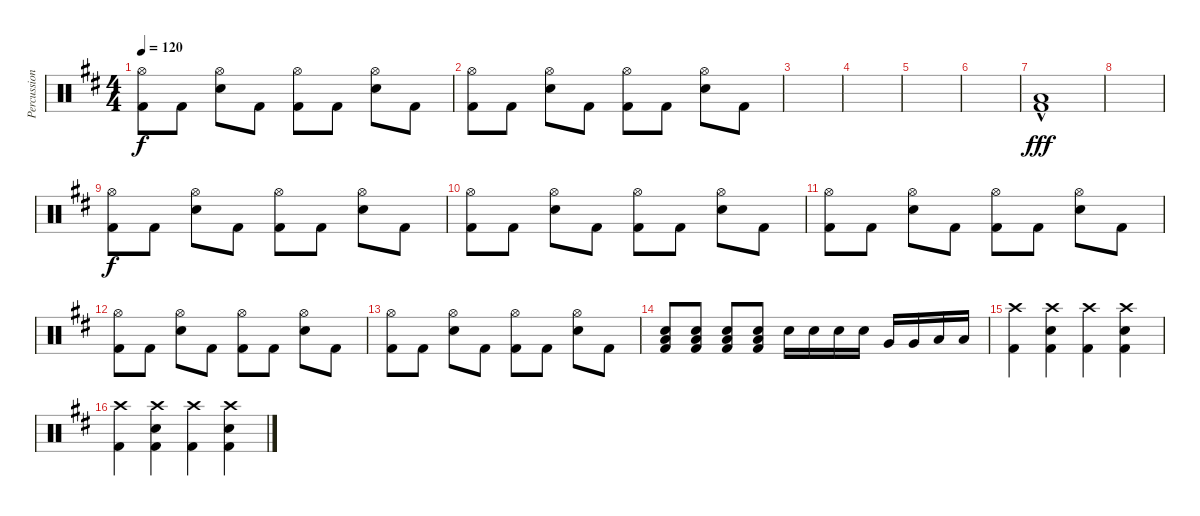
\track ("Percussion" "Percussion") {instrument percussion}
\staff {score}
\articulation defaults
\ts (4 4)
\tempo 120
\clef neutral
\ks d
("Hi-Hat (open)" "Kick (hit) 2").8{dy f} "Kick (hit) 2".8 ("Hi-Hat (open)" "Snare (hit) 2").8 "Kick (hit) 2".8 ("Hi-Hat (open)" "Kick (hit) 2").8 "Kick (hit) 2".8 ("Hi-Hat (open)" "Snare (hit) 2").8 "Kick (hit) 2".8 |
("Hi-Hat (open)" "Kick (hit) 2").8 "Kick (hit) 2".8 ("Hi-Hat (open)" "Snare (hit) 2").8 "Kick (hit) 2".8 ("Hi-Hat (open)" "Kick (hit) 2").8 "Kick (hit) 2".8 ("Hi-Hat (open)" "Snare (hit) 2").8 "Kick (hit) 2".8 |
|
|
|
|
("Low Floor Tom (hit)"{hac} "Kick (hit) 2"{hac}).1{dy fff} |
|
("Hi-Hat (open)" "Kick (hit) 2").8{dy f} "Kick (hit) 2".8 ("Hi-Hat (open)" "Snare (hit) 2").8 "Kick (hit) 2".8 ("Hi-Hat (open)" "Kick (hit) 2").8 "Kick (hit) 2".8 ("Hi-Hat (open)" "Snare (hit) 2").8 "Kick (hit) 2".8 |
("Hi-Hat (open)" "Kick (hit) 2").8 "Kick (hit) 2".8 ("Hi-Hat (open)" "Snare (hit) 2").8 "Kick (hit) 2".8 ("Hi-Hat (open)" "Kick (hit) 2").8 "Kick (hit) 2".8 ("Hi-Hat (open)" "Snare (hit) 2").8 "Kick (hit) 2".8 |
("Hi-Hat (open)" "Kick (hit) 2").8 "Kick (hit) 2".8 ("Hi-Hat (open)" "Snare (hit) 2").8 "Kick (hit) 2".8 ("Hi-Hat (open)" "Kick (hit) 2").8 "Kick (hit) 2".8 ("Hi-Hat (open)" "Snare (hit) 2").8 "Kick (hit) 2".8 |
("Hi-Hat (open)" "Kick (hit) 2").8 "Kick (hit) 2".8 ("Hi-Hat (open)" "Snare (hit) 2").8 "Kick (hit) 2".8 ("Hi-Hat (open)" "Kick (hit) 2").8 "Kick (hit) 2".8 ("Hi-Hat (open)" "Snare (hit) 2").8 "Kick (hit) 2".8 |
("Hi-Hat (open)" "Kick (hit) 2").8 "Kick (hit) 2".8 ("Hi-Hat (open)" "Snare (hit) 2").8 "Kick (hit) 2".8 ("Hi-Hat (open)" "Kick (hit) 2").8 "Kick (hit) 2".8 ("Hi-Hat (open)" "Snare (hit) 2").8 "Kick (hit) 2".8 |
("Low Floor Tom (hit)" "Snare (hit) 2" "Kick (hit) 2").8 ("Low Floor Tom (hit)" "Snare (hit) 2" "Kick (hit) 2").8 ("Low Floor Tom (hit)" "Snare (hit) 2" "Kick (hit) 2").8 ("Low Floor Tom (hit)" "Snare (hit) 2" "Kick (hit) 2").8 "Snare (hit) 2".16 "Snare (hit) 2".16 "Snare (hit) 2".16 "Snare (hit) 2".16 "Very Low Tom (hit)".16 "Very Low Tom (hit)".16 "Low Floor Tom (hit)".16 "Low Floor Tom (hit)".16 |
("Crash high (hit)" "Kick (hit) 2").4 ("Crash high (hit)" "Snare (hit) 2" "Kick (hit) 2").4 ("Crash high (hit)" "Kick (hit) 2").4 ("Crash high (hit)" "Snare (hit) 2" "Kick (hit) 2").4 |
("Crash high (hit)" "Kick (hit) 2").4 ("Crash high (hit)" "Snare (hit) 2" "Kick (hit) 2").4 ("Crash high (hit)" "Kick (hit) 2").4 ("Crash high (hit)" "Snare (hit) 2" "Kick (hit) 2").4
